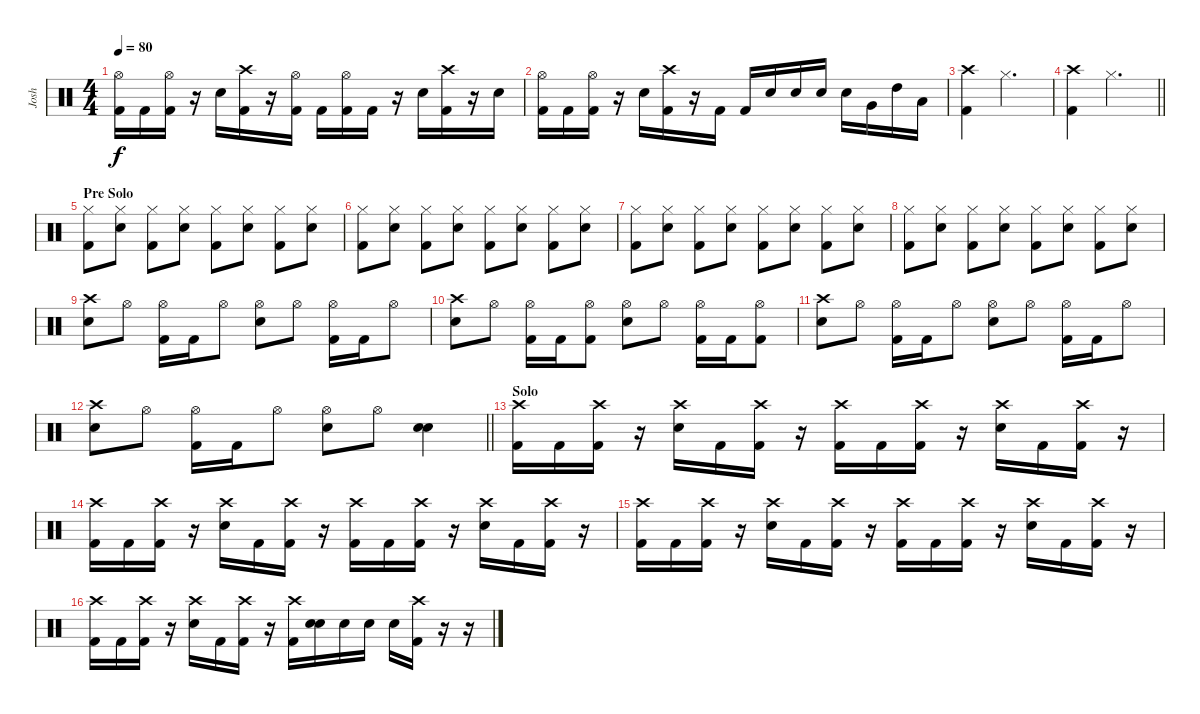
\track ("Josh" "Josh") {instrument percussion}
\staff {score}
\articulation defaults
\ts (4 4)
\tempo 80
\clef neutral
\ks c
("Hi-Hat (open)" "Kick (hit) 2").16{dy f} "Kick (hit) 2".16 ("Hi-Hat (open)" "Kick (hit) 2").16 r.16 "Electric Snare (hit)".16 ("Crash high (hit)" "Kick (hit) 2").16 r.16 ("Hi-Hat (open)" "Kick (hit) 2").16 "Kick (hit) 2".16 ("Hi-Hat (open)" "Kick (hit) 2").16 "Kick (hit) 2".16 r.16 "Electric Snare (hit)".16 ("Crash high (hit)" "Kick (hit) 2").16 r.16 "Electric Snare (hit)".16 |
("Hi-Hat (open)" "Kick (hit) 2").16 "Kick (hit) 2".16 ("Hi-Hat (open)" "Kick (hit) 2").16 r.16 "Electric Snare (hit)".16 ("Crash high (hit)" "Kick (hit) 2").16 r.16 "Kick (hit) 2".16 "Kick (hit) 2".16 "Electric Snare (hit)".16 "Electric Snare (hit)".16 "Electric Snare (hit)".16 "Electric Snare (hit)".16 "Very Low Tom (hit)".16 "High Tom (hit)".16 "Low Floor Tom (hit)".16 |
("Crash high (hit)" "Kick (hit) 2").4 "Hi-Hat (closed)".2{d} |
\barLineRight lightlight
("Crash high (hit)" "Kick (hit) 2").4 "Hi-Hat (closed)".2{d} |
\section ("" "Pre Solo")
("Hi-Hat (closed)" "Kick (hit) 2").8 ("Hi-Hat (closed)" "Electric Snare (hit)").8 ("Hi-Hat (closed)" "Kick (hit) 2").8 ("Hi-Hat (closed)" "Electric Snare (hit)").8 ("Hi-Hat (closed)" "Kick (hit) 2").8 ("Hi-Hat (closed)" "Electric Snare (hit)").8 ("Hi-Hat (closed)" "Kick (hit) 2").8 ("Hi-Hat (closed)" "Electric Snare (hit)").8 |
("Hi-Hat (closed)" "Kick (hit) 2").8 ("Hi-Hat (closed)" "Electric Snare (hit)").8 ("Hi-Hat (closed)" "Kick (hit) 2").8 ("Hi-Hat (closed)" "Electric Snare (hit)").8 ("Hi-Hat (closed)" "Kick (hit) 2").8 ("Hi-Hat (closed)" "Electric Snare (hit)").8 ("Hi-Hat (closed)" "Kick (hit) 2").8 ("Hi-Hat (closed)" "Electric Snare (hit)").8 |
("Hi-Hat (closed)" "Kick (hit) 2").8 ("Hi-Hat (closed)" "Electric Snare (hit)").8 ("Hi-Hat (closed)" "Kick (hit) 2").8 ("Hi-Hat (closed)" "Electric Snare (hit)").8 ("Hi-Hat (closed)" "Kick (hit) 2").8 ("Hi-Hat (closed)" "Electric Snare (hit)").8 ("Hi-Hat (closed)" "Kick (hit) 2").8 ("Hi-Hat (closed)" "Electric Snare (hit)").8 |
("Hi-Hat (closed)" "Kick (hit) 2").8 ("Hi-Hat (closed)" "Electric Snare (hit)").8 ("Hi-Hat (closed)" "Kick (hit) 2").8 ("Hi-Hat (closed)" "Electric Snare (hit)").8 ("Hi-Hat (closed)" "Kick (hit) 2").8 ("Hi-Hat (closed)" "Electric Snare (hit)").8 ("Hi-Hat (closed)" "Kick (hit) 2").8 ("Hi-Hat (closed)" "Electric Snare (hit)").8 |
("Crash high (hit)" "Electric Snare (hit)").8 "Hi-Hat (open)".8 ("Hi-Hat (open)" "Kick (hit) 2").16 "Kick (hit) 2".16 "Hi-Hat (open)".8 ("Hi-Hat (open)" "Electric Snare (hit)").8 "Hi-Hat (open)".8 ("Hi-Hat (open)" "Kick (hit) 2").16 "Kick (hit) 2".16 "Hi-Hat (open)".8 |
("Crash high (hit)" "Electric Snare (hit)").8 "Hi-Hat (open)".8 ("Hi-Hat (open)" "Kick (hit) 2").16 "Kick (hit) 2".16 ("Hi-Hat (open)" "Kick (hit) 2").8 ("Hi-Hat (open)" "Electric Snare (hit)").8 "Hi-Hat (open)".8 ("Hi-Hat (open)" "Kick (hit) 2").16 "Kick (hit) 2".16 ("Hi-Hat (open)" "Kick (hit) 2").8 |
("Crash high (hit)" "Electric Snare (hit)").8 "Hi-Hat (open)".8 ("Hi-Hat (open)" "Kick (hit) 2").16 "Kick (hit) 2".16 "Hi-Hat (open)".8 ("Hi-Hat (open)" "Electric Snare (hit)").8 "Hi-Hat (open)".8 ("Hi-Hat (open)" "Kick (hit) 2").16 "Kick (hit) 2".16 "Hi-Hat (open)".8 |
\barLineRight lightlight
("Crash high (hit)" "Electric Snare (hit)").8 "Hi-Hat (open)".8 ("Hi-Hat (open)" "Kick (hit) 2").16 "Kick (hit) 2".16 "Hi-Hat (open)".8 ("Hi-Hat (open)" "Electric Snare (hit)").8 "Hi-Hat (open)".8 ("Electric Snare (hit)" "Electric Snare (hit)").4 |
\section ("" "Solo")
("Crash high (hit)" "Kick (hit) 2").16 "Kick (hit) 2".16 ("Crash high (hit)" "Kick (hit) 2").16 r.16 ("Crash high (hit)" "Electric Snare (hit)").16 "Kick (hit) 2".16 ("Crash high (hit)" "Kick (hit) 2").16 r.16 ("Crash high (hit)" "Kick (hit) 2").16 "Kick (hit) 2".16 ("Crash high (hit)" "Kick (hit) 2").16 r.16 ("Crash high (hit)" "Electric Snare (hit)").16 "Kick (hit) 2".16 ("Crash high (hit)" "Kick (hit) 2").16 r.16 |
("Crash high (hit)" "Kick (hit) 2").16 "Kick (hit) 2".16 ("Crash high (hit)" "Kick (hit) 2").16 r.16 ("Crash high (hit)" "Electric Snare (hit)").16 "Kick (hit) 2".16 ("Crash high (hit)" "Kick (hit) 2").16 r.16 ("Crash high (hit)" "Kick (hit) 2").16 "Kick (hit) 2".16 ("Crash high (hit)" "Kick (hit) 2").16 r.16 ("Crash high (hit)" "Electric Snare (hit)").16 "Kick (hit) 2".16 ("Crash high (hit)" "Kick (hit) 2").16 r.16 |
("Crash high (hit)" "Kick (hit) 2").16 "Kick (hit) 2".16 ("Crash high (hit)" "Kick (hit) 2").16 r.16 ("Crash high (hit)" "Electric Snare (hit)").16 "Kick (hit) 2".16 ("Crash high (hit)" "Kick (hit) 2").16 r.16 ("Crash high (hit)" "Kick (hit) 2").16 "Kick (hit) 2".16 ("Crash high (hit)" "Kick (hit) 2").16 r.16 ("Crash high (hit)" "Electric Snare (hit)").16 "Kick (hit) 2".16 ("Crash high (hit)" "Kick (hit) 2").16 r.16 |
("Crash high (hit)" "Kick (hit) 2").16 "Kick (hit) 2".16 ("Crash high (hit)" "Kick (hit) 2").16 r.16 ("Crash high (hit)" "Electric Snare (hit)").16 "Kick (hit) 2".16 ("Crash high (hit)" "Kick (hit) 2").16 r.16 ("Crash high (hit)" "Kick (hit) 2").16 ("Electric Snare (hit)" "Electric Snare (hit)").16 "Electric Snare (hit)".16 "Electric Snare (hit)".16 "Electric Snare (hit)".16 ("Crash high (hit)" "Kick (hit) 2").16 r.16 r.16
